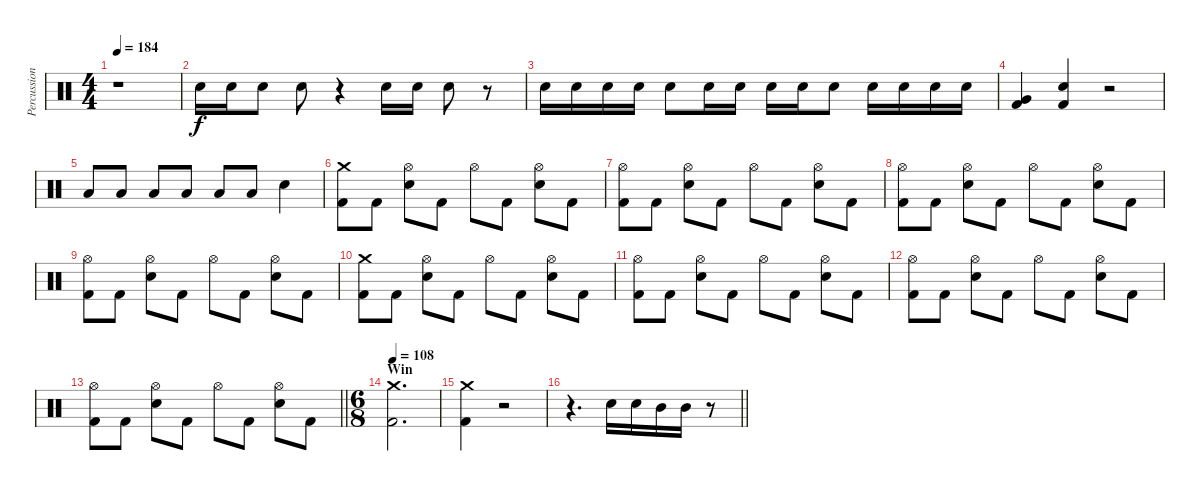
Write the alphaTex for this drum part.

\track ("Percussion" "Percussion") {instrument percussion}
\staff {score}
\articulation defaults
\ts (4 4)
\tempo 184
\clef neutral
\ks c
r.1{dy f} |
"Electric Snare (hit)".16 "Electric Snare (hit)".16 "Snare (hit) 2".8 "Snare (hit) 2".8 r.4 "Electric Snare (hit)".16 "Electric Snare (hit)".16 "Snare (hit) 2".8 r.8 |
"Electric Snare (hit)".16 "Electric Snare (hit)".16 "Electric Snare (hit)".16 "Electric Snare (hit)".16 "Snare (hit) 2".8 "Electric Snare (hit)".16 "Electric Snare (hit)".16 "Electric Snare (hit)".16 "Electric Snare (hit)".16 "Snare (hit) 2".8 "Electric Snare (hit)".16 "Electric Snare (hit)".16 "Snare (hit) 2".16 "Snare (hit) 2".16 |
("Very Low Tom (hit)" "Kick (hit) 2").4 ("Electric Snare (hit)" "Kick (hit) 2").4 r.2 |
"Low Tom (hit)".8 "Low Tom (hit)".8 "Low Tom (hit)".8 "Low Tom (hit)".8 "Low Tom (hit)".8 "Low Tom (hit)".8 "Electric Snare (hit)".4 |
("Crash medium (hit)" "Kick (hit) 2").8 "Kick (hit) 2".8 ("Hi-Hat (open)" "Electric Snare (hit)").8 "Kick (hit) 2".8 "Hi-Hat (open)".8 "Kick (hit) 2".8 ("Hi-Hat (open)" "Electric Snare (hit)").8 "Kick (hit) 2".8 |
("Hi-Hat (open)" "Kick (hit) 2").8 "Kick (hit) 2".8 ("Hi-Hat (open)" "Electric Snare (hit)").8 "Kick (hit) 2".8 "Hi-Hat (open)".8 "Kick (hit) 2".8 ("Hi-Hat (open)" "Electric Snare (hit)").8 "Kick (hit) 2".8 |
("Hi-Hat (open)" "Kick (hit) 2").8 "Kick (hit) 2".8 ("Hi-Hat (open)" "Electric Snare (hit)").8 "Kick (hit) 2".8 "Hi-Hat (open)".8 "Kick (hit) 2".8 ("Hi-Hat (open)" "Electric Snare (hit)").8 "Kick (hit) 2".8 |
("Hi-Hat (open)" "Kick (hit) 2").8 "Kick (hit) 2".8 ("Hi-Hat (open)" "Electric Snare (hit)").8 "Kick (hit) 2".8 "Hi-Hat (open)".8 "Kick (hit) 2".8 ("Hi-Hat (open)" "Electric Snare (hit)").8 "Kick (hit) 2".8 |
("Crash medium (hit)" "Kick (hit) 2").8 "Kick (hit) 2".8 ("Hi-Hat (open)" "Electric Snare (hit)").8 "Kick (hit) 2".8 "Hi-Hat (open)".8 "Kick (hit) 2".8 ("Hi-Hat (open)" "Electric Snare (hit)").8 "Kick (hit) 2".8 |
("Hi-Hat (open)" "Kick (hit) 2").8 "Kick (hit) 2".8 ("Hi-Hat (open)" "Electric Snare (hit)").8 "Kick (hit) 2".8 "Hi-Hat (open)".8 "Kick (hit) 2".8 ("Hi-Hat (open)" "Electric Snare (hit)").8 "Kick (hit) 2".8 |
("Hi-Hat (open)" "Kick (hit) 2").8 "Kick (hit) 2".8 ("Hi-Hat (open)" "Electric Snare (hit)").8 "Kick (hit) 2".8 "Hi-Hat (open)".8 "Kick (hit) 2".8 ("Hi-Hat (open)" "Electric Snare (hit)").8 "Kick (hit) 2".8 |
\barLineRight lightlight
("Hi-Hat (open)" "Kick (hit) 2").8 "Kick (hit) 2".8 ("Hi-Hat (open)" "Electric Snare (hit)").8 "Kick (hit) 2".8 "Hi-Hat (open)".8 "Kick (hit) 2".8 ("Hi-Hat (open)" "Electric Snare (hit)").8 "Kick (hit) 2".8 |
\ts (6 8)
\section ("" "Win")
\tempo 108
("Crash medium (hit)" "Kick (hit) 2").2{d} |
("Crash medium (hit)" "Kick (hit) 2").4 r.2 |
\barLineRight lightlight
r.4{d} "Electric Snare (hit)".16 "Electric Snare (hit)".16 "Mid Tom (hit)".16 "Mid Tom (hit)".16 r.8
